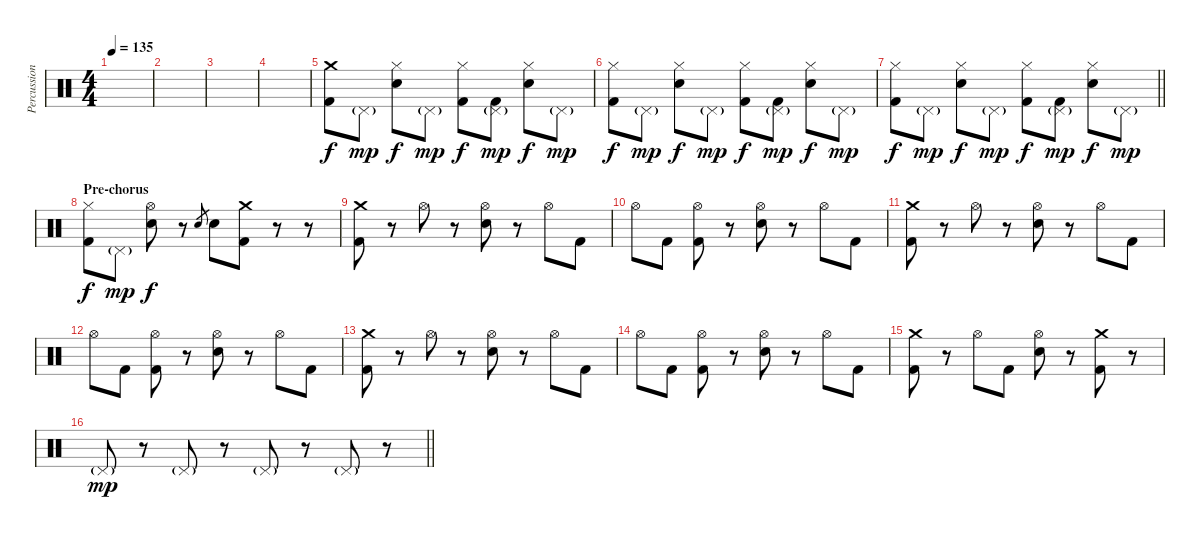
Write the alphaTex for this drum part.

\track ("Percussion" "Percussion") {instrument percussion}
\staff {score}
\articulation defaults
\ts (4 4)
\tempo 135
\clef neutral
\ks c
|
|
|
|
("Crash medium (hit)" "Kick (hit) 2").8 "Pedal Hi-Hat (hit)"{g}.8{dy mp} ("Hi-Hat (closed)" "Electric Snare (hit)").8{dy f} "Pedal Hi-Hat (hit)"{g}.8{dy mp} ("Hi-Hat (closed)" "Kick (hit) 2").8{dy f} ("Pedal Hi-Hat (hit)"{g} "Kick (hit) 2").8{dy mp} ("Hi-Hat (closed)" "Electric Snare (hit)").8{dy f} "Pedal Hi-Hat (hit)"{g}.8{dy mp} |
("Hi-Hat (closed)" "Kick (hit) 2").8{dy f} "Pedal Hi-Hat (hit)"{g}.8{dy mp} ("Hi-Hat (closed)" "Electric Snare (hit)").8{dy f} "Pedal Hi-Hat (hit)"{g}.8{dy mp} ("Hi-Hat (closed)" "Kick (hit) 2").8{dy f} ("Pedal Hi-Hat (hit)"{g} "Kick (hit) 2").8{dy mp} ("Hi-Hat (closed)" "Electric Snare (hit)").8{dy f} "Pedal Hi-Hat (hit)"{g}.8{dy mp} |
\barLineRight lightlight
("Hi-Hat (closed)" "Kick (hit) 2").8{dy f} "Pedal Hi-Hat (hit)"{g}.8{dy mp} ("Hi-Hat (closed)" "Electric Snare (hit)").8{dy f} "Pedal Hi-Hat (hit)"{g}.8{dy mp} ("Hi-Hat (closed)" "Kick (hit) 2").8{dy f} ("Pedal Hi-Hat (hit)"{g} "Kick (hit) 2").8{dy mp} ("Hi-Hat (closed)" "Electric Snare (hit)").8{dy f} "Pedal Hi-Hat (hit)"{g}.8{dy mp} |
\section ("" "Pre-chorus")
("Hi-Hat (closed)" "Kick (hit) 2").8{dy f} "Pedal Hi-Hat (hit)"{g}.8{dy mp} ("Hi-Hat (open)" "Electric Snare (hit)").8{dy f} r.8 "Electric Snare (hit)".8{gr} "Electric Snare (hit)".8 ("Crash medium (hit)" "Kick (hit) 2").8 r.8 r.8 |
("Crash medium (hit)" "Kick (hit) 2").8 r.8 "Hi-Hat (open)".8 r.8 ("Hi-Hat (open)" "Electric Snare (hit)").8 r.8 "Hi-Hat (open)".8 "Kick (hit) 2".8 |
"Hi-Hat (open)".8 "Kick (hit) 2".8 ("Hi-Hat (open)" "Kick (hit) 2").8 r.8 ("Hi-Hat (open)" "Electric Snare (hit)").8 r.8 "Hi-Hat (open)".8 "Kick (hit) 2".8 |
("Crash medium (hit)" "Kick (hit) 2").8 r.8 "Hi-Hat (open)".8 r.8 ("Hi-Hat (open)" "Electric Snare (hit)").8 r.8 "Hi-Hat (open)".8 "Kick (hit) 2".8 |
"Hi-Hat (open)".8 "Kick (hit) 2".8 ("Hi-Hat (open)" "Kick (hit) 2").8 r.8 ("Hi-Hat (open)" "Electric Snare (hit)").8 r.8 "Hi-Hat (open)".8 "Kick (hit) 2".8 |
("Crash medium (hit)" "Kick (hit) 2").8 r.8 "Hi-Hat (open)".8 r.8 ("Hi-Hat (open)" "Electric Snare (hit)").8 r.8 "Hi-Hat (open)".8 "Kick (hit) 2".8 |
"Hi-Hat (open)".8 "Kick (hit) 2".8 ("Hi-Hat (open)" "Kick (hit) 2").8 r.8 ("Hi-Hat (open)" "Electric Snare (hit)").8 r.8 "Hi-Hat (open)".8 "Kick (hit) 2".8 |
("Crash medium (hit)" "Kick (hit) 2").8 r.8 "Hi-Hat (open)".8 "Kick (hit) 2".8 ("Hi-Hat (open)" "Electric Snare (hit)").8 r.8 ("Kick (hit) 2" "Crash medium (hit)").8 r.8 |
\barLineRight lightlight "Pedal Hi-Hat (hit)"{g}.8{dy mp}
r.8 "Pedal Hi-Hat (hit)"{g}.8 r.8 "Pedal Hi-Hat (hit)"{g}.8 r.8 "Pedal Hi-Hat (hit)"{g}.8 r.8
